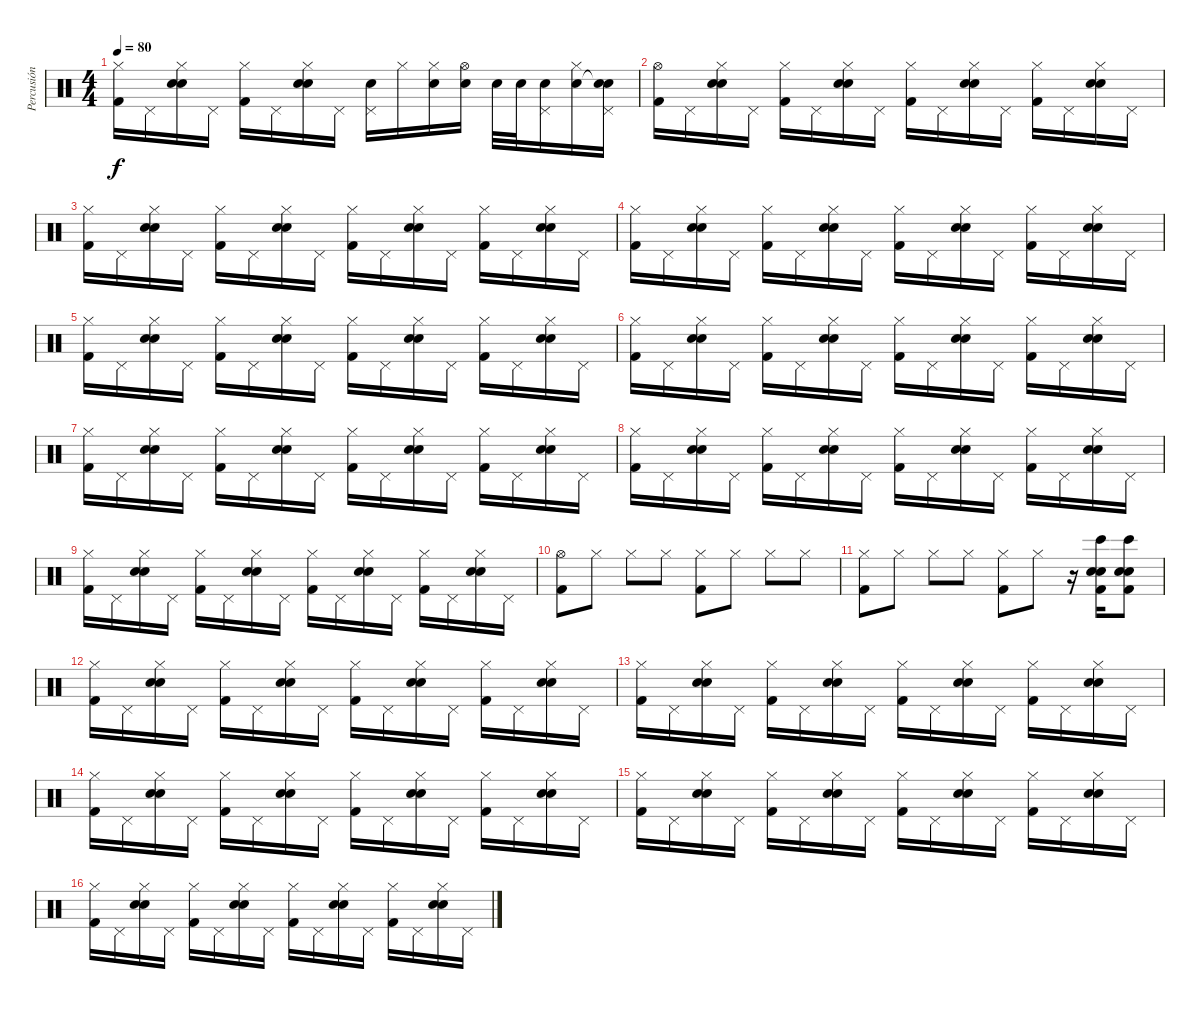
\track ("Percusión" "Percusión") {instrument percussion}
\staff {score}
\articulation defaults
\ts (4 4)
\tempo 80
\clef neutral
\ks c
("Hi-Hat (closed)" "Kick (hit) 2").16{dy f} "Pedal Hi-Hat (hit)".16 ("Hi-Hat (closed)" "Hand Clap (hit)" "Electric Snare (hit)").16 "Pedal Hi-Hat (hit)".16 ("Hi-Hat (closed)" "Kick (hit) 2").16 "Pedal Hi-Hat (hit)".16 ("Hi-Hat (closed)" "Hand Clap (hit)" "Electric Snare (hit)").16 "Pedal Hi-Hat (hit)".16 ("Pedal Hi-Hat (hit)" "Electric Snare (hit)").16 "Hi-Hat (closed)".16 ("Hi-Hat (closed)" "Electric Snare (hit)").16 ("Hi-Hat (open)" "Electric Snare (hit)").16 "Electric Snare (hit)".32 "Electric Snare (hit)".32 ("Pedal Hi-Hat (hit)" "Electric Snare (hit)").16 ("Hi-Hat (closed)" "Electric Snare (hit)").16 ("Pedal Hi-Hat (hit)" "Snare (hit)"{t} "Electric Snare (hit)").16 |
("Hi-Hat (open)" "Kick (hit) 2").16 "Pedal Hi-Hat (hit)".16 ("Hi-Hat (closed)" "Hand Clap (hit)" "Electric Snare (hit)").16 "Pedal Hi-Hat (hit)".16 ("Hi-Hat (closed)" "Kick (hit) 2").16 "Pedal Hi-Hat (hit)".16 ("Hi-Hat (closed)" "Hand Clap (hit)" "Electric Snare (hit)").16 "Pedal Hi-Hat (hit)".16 ("Hi-Hat (closed)" "Kick (hit) 2").16 "Pedal Hi-Hat (hit)".16 ("Hi-Hat (closed)" "Hand Clap (hit)" "Electric Snare (hit)").16 "Pedal Hi-Hat (hit)".16 ("Hi-Hat (closed)" "Kick (hit) 2").16 "Pedal Hi-Hat (hit)".16 ("Hi-Hat (closed)" "Hand Clap (hit)" "Electric Snare (hit)").16 "Pedal Hi-Hat (hit)".16 |
("Hi-Hat (closed)" "Kick (hit) 2").16 "Pedal Hi-Hat (hit)".16 ("Hi-Hat (closed)" "Hand Clap (hit)" "Electric Snare (hit)").16 "Pedal Hi-Hat (hit)".16 ("Hi-Hat (closed)" "Kick (hit) 2").16 "Pedal Hi-Hat (hit)".16 ("Hi-Hat (closed)" "Hand Clap (hit)" "Electric Snare (hit)").16 "Pedal Hi-Hat (hit)".16 ("Hi-Hat (closed)" "Kick (hit) 2").16 "Pedal Hi-Hat (hit)".16 ("Hi-Hat (closed)" "Hand Clap (hit)" "Electric Snare (hit)").16 "Pedal Hi-Hat (hit)".16 ("Hi-Hat (closed)" "Kick (hit) 2").16 "Pedal Hi-Hat (hit)".16 ("Hi-Hat (closed)" "Hand Clap (hit)" "Electric Snare (hit)").16 "Pedal Hi-Hat (hit)".16 |
("Hi-Hat (closed)" "Kick (hit) 2").16 "Pedal Hi-Hat (hit)".16 ("Hi-Hat (closed)" "Hand Clap (hit)" "Electric Snare (hit)").16 "Pedal Hi-Hat (hit)".16 ("Hi-Hat (closed)" "Kick (hit) 2").16 "Pedal Hi-Hat (hit)".16 ("Hi-Hat (closed)" "Hand Clap (hit)" "Electric Snare (hit)").16 "Pedal Hi-Hat (hit)".16 ("Hi-Hat (closed)" "Kick (hit) 2").16 "Pedal Hi-Hat (hit)".16 ("Hi-Hat (closed)" "Hand Clap (hit)" "Electric Snare (hit)").16 "Pedal Hi-Hat (hit)".16 ("Hi-Hat (closed)" "Kick (hit) 2").16 "Pedal Hi-Hat (hit)".16 ("Hi-Hat (closed)" "Hand Clap (hit)" "Electric Snare (hit)").16 "Pedal Hi-Hat (hit)".16 |
("Hi-Hat (closed)" "Kick (hit) 2").16 "Pedal Hi-Hat (hit)".16 ("Hi-Hat (closed)" "Hand Clap (hit)" "Electric Snare (hit)").16 "Pedal Hi-Hat (hit)".16 ("Hi-Hat (closed)" "Kick (hit) 2").16 "Pedal Hi-Hat (hit)".16 ("Hi-Hat (closed)" "Hand Clap (hit)" "Electric Snare (hit)").16 "Pedal Hi-Hat (hit)".16 ("Hi-Hat (closed)" "Kick (hit) 2").16 "Pedal Hi-Hat (hit)".16 ("Hi-Hat (closed)" "Hand Clap (hit)" "Electric Snare (hit)").16 "Pedal Hi-Hat (hit)".16 ("Hi-Hat (closed)" "Kick (hit) 2").16 "Pedal Hi-Hat (hit)".16 ("Hi-Hat (closed)" "Hand Clap (hit)" "Electric Snare (hit)").16 "Pedal Hi-Hat (hit)".16 |
("Hi-Hat (closed)" "Kick (hit) 2").16 "Pedal Hi-Hat (hit)".16 ("Hi-Hat (closed)" "Hand Clap (hit)" "Electric Snare (hit)").16 "Pedal Hi-Hat (hit)".16 ("Hi-Hat (closed)" "Kick (hit) 2").16 "Pedal Hi-Hat (hit)".16 ("Hi-Hat (closed)" "Hand Clap (hit)" "Electric Snare (hit)").16 "Pedal Hi-Hat (hit)".16 ("Hi-Hat (closed)" "Kick (hit) 2").16 "Pedal Hi-Hat (hit)".16 ("Hi-Hat (closed)" "Hand Clap (hit)" "Electric Snare (hit)").16 "Pedal Hi-Hat (hit)".16 ("Hi-Hat (closed)" "Kick (hit) 2").16 "Pedal Hi-Hat (hit)".16 ("Hi-Hat (closed)" "Hand Clap (hit)" "Electric Snare (hit)").16 "Pedal Hi-Hat (hit)".16 |
("Hi-Hat (closed)" "Kick (hit) 2").16 "Pedal Hi-Hat (hit)".16 ("Hi-Hat (closed)" "Hand Clap (hit)" "Electric Snare (hit)").16 "Pedal Hi-Hat (hit)".16 ("Hi-Hat (closed)" "Kick (hit) 2").16 "Pedal Hi-Hat (hit)".16 ("Hi-Hat (closed)" "Hand Clap (hit)" "Electric Snare (hit)").16 "Pedal Hi-Hat (hit)".16 ("Hi-Hat (closed)" "Kick (hit) 2").16 "Pedal Hi-Hat (hit)".16 ("Hi-Hat (closed)" "Hand Clap (hit)" "Electric Snare (hit)").16 "Pedal Hi-Hat (hit)".16 ("Hi-Hat (closed)" "Kick (hit) 2").16 "Pedal Hi-Hat (hit)".16 ("Hi-Hat (closed)" "Hand Clap (hit)" "Electric Snare (hit)").16 "Pedal Hi-Hat (hit)".16 |
("Hi-Hat (closed)" "Kick (hit) 2").16 "Pedal Hi-Hat (hit)".16 ("Hi-Hat (closed)" "Hand Clap (hit)" "Electric Snare (hit)").16 "Pedal Hi-Hat (hit)".16 ("Hi-Hat (closed)" "Kick (hit) 2").16 "Pedal Hi-Hat (hit)".16 ("Hi-Hat (closed)" "Hand Clap (hit)" "Electric Snare (hit)").16 "Pedal Hi-Hat (hit)".16 ("Hi-Hat (closed)" "Kick (hit) 2").16 "Pedal Hi-Hat (hit)".16 ("Hi-Hat (closed)" "Hand Clap (hit)" "Electric Snare (hit)").16 "Pedal Hi-Hat (hit)".16 ("Hi-Hat (closed)" "Kick (hit) 2").16 "Pedal Hi-Hat (hit)".16 ("Hi-Hat (closed)" "Hand Clap (hit)" "Electric Snare (hit)").16 "Pedal Hi-Hat (hit)".16 |
("Hi-Hat (closed)" "Kick (hit) 2").16 "Pedal Hi-Hat (hit)".16 ("Hi-Hat (closed)" "Hand Clap (hit)" "Electric Snare (hit)").16 "Pedal Hi-Hat (hit)".16 ("Hi-Hat (closed)" "Kick (hit) 2").16 "Pedal Hi-Hat (hit)".16 ("Hi-Hat (closed)" "Hand Clap (hit)" "Electric Snare (hit)").16 "Pedal Hi-Hat (hit)".16 ("Hi-Hat (closed)" "Kick (hit) 2").16 "Pedal Hi-Hat (hit)".16 ("Hi-Hat (closed)" "Hand Clap (hit)" "Electric Snare (hit)").16 "Pedal Hi-Hat (hit)".16 ("Hi-Hat (closed)" "Kick (hit) 2").16 "Pedal Hi-Hat (hit)".16 ("Hi-Hat (closed)" "Hand Clap (hit)" "Electric Snare (hit)").16 "Pedal Hi-Hat (hit)".16 |
("Hi-Hat (open)" "Kick (hit) 2").8 "Hi-Hat (closed)".8 "Hi-Hat (closed)".8 "Hi-Hat (closed)".8 ("Hi-Hat (closed)" "Kick (hit) 2").8 "Hi-Hat (closed)".8 "Hi-Hat (closed)".8 "Hi-Hat (closed)".8 |
("Hi-Hat (closed)" "Kick (hit) 2").8 "Hi-Hat (closed)".8 "Hi-Hat (closed)".8 "Hi-Hat (closed)".8 ("Hi-Hat (closed)" "Kick (hit) 2").8 "Hi-Hat (closed)".8 r.16 ("Hand Clap (hit)" "Electric Snare (hit)" "Kick (hit) 2" "Bongo High (hit)").16 ("Hand Clap (hit)" "Electric Snare (hit)" "Kick (hit) 2" "Bongo High (hit)").8 |
("Hi-Hat (closed)" "Kick (hit) 2").16 "Pedal Hi-Hat (hit)".16 ("Hi-Hat (closed)" "Hand Clap (hit)" "Electric Snare (hit)").16 "Pedal Hi-Hat (hit)".16 ("Hi-Hat (closed)" "Kick (hit) 2").16 "Pedal Hi-Hat (hit)".16 ("Hi-Hat (closed)" "Hand Clap (hit)" "Electric Snare (hit)").16 "Pedal Hi-Hat (hit)".16 ("Hi-Hat (closed)" "Kick (hit) 2").16 "Pedal Hi-Hat (hit)".16 ("Hi-Hat (closed)" "Hand Clap (hit)" "Electric Snare (hit)").16 "Pedal Hi-Hat (hit)".16 ("Hi-Hat (closed)" "Kick (hit) 2").16 "Pedal Hi-Hat (hit)".16 ("Hi-Hat (closed)" "Hand Clap (hit)" "Electric Snare (hit)").16 "Pedal Hi-Hat (hit)".16 |
("Hi-Hat (closed)" "Kick (hit) 2").16 "Pedal Hi-Hat (hit)".16 ("Hi-Hat (closed)" "Hand Clap (hit)" "Electric Snare (hit)").16 "Pedal Hi-Hat (hit)".16 ("Hi-Hat (closed)" "Kick (hit) 2").16 "Pedal Hi-Hat (hit)".16 ("Hi-Hat (closed)" "Hand Clap (hit)" "Electric Snare (hit)").16 "Pedal Hi-Hat (hit)".16 ("Hi-Hat (closed)" "Kick (hit) 2").16 "Pedal Hi-Hat (hit)".16 ("Hi-Hat (closed)" "Hand Clap (hit)" "Electric Snare (hit)").16 "Pedal Hi-Hat (hit)".16 ("Hi-Hat (closed)" "Kick (hit) 2").16 "Pedal Hi-Hat (hit)".16 ("Hi-Hat (closed)" "Hand Clap (hit)" "Electric Snare (hit)").16 "Pedal Hi-Hat (hit)".16 |
("Hi-Hat (closed)" "Kick (hit) 2").16 "Pedal Hi-Hat (hit)".16 ("Hi-Hat (closed)" "Hand Clap (hit)" "Electric Snare (hit)").16 "Pedal Hi-Hat (hit)".16 ("Hi-Hat (closed)" "Kick (hit) 2").16 "Pedal Hi-Hat (hit)".16 ("Hi-Hat (closed)" "Hand Clap (hit)" "Electric Snare (hit)").16 "Pedal Hi-Hat (hit)".16 ("Hi-Hat (closed)" "Kick (hit) 2").16 "Pedal Hi-Hat (hit)".16 ("Hi-Hat (closed)" "Hand Clap (hit)" "Electric Snare (hit)").16 "Pedal Hi-Hat (hit)".16 ("Hi-Hat (closed)" "Kick (hit) 2").16 "Pedal Hi-Hat (hit)".16 ("Hi-Hat (closed)" "Hand Clap (hit)" "Electric Snare (hit)").16 "Pedal Hi-Hat (hit)".16 |
("Hi-Hat (closed)" "Kick (hit) 2").16 "Pedal Hi-Hat (hit)".16 ("Hi-Hat (closed)" "Hand Clap (hit)" "Electric Snare (hit)").16 "Pedal Hi-Hat (hit)".16 ("Hi-Hat (closed)" "Kick (hit) 2").16 "Pedal Hi-Hat (hit)".16 ("Hi-Hat (closed)" "Hand Clap (hit)" "Electric Snare (hit)").16 "Pedal Hi-Hat (hit)".16 ("Hi-Hat (closed)" "Kick (hit) 2").16 "Pedal Hi-Hat (hit)".16 ("Hi-Hat (closed)" "Hand Clap (hit)" "Electric Snare (hit)").16 "Pedal Hi-Hat (hit)".16 ("Hi-Hat (closed)" "Kick (hit) 2").16 "Pedal Hi-Hat (hit)".16 ("Hi-Hat (closed)" "Hand Clap (hit)" "Electric Snare (hit)").16 "Pedal Hi-Hat (hit)".16 |
("Hi-Hat (closed)" "Kick (hit) 2").16 "Pedal Hi-Hat (hit)".16 ("Hi-Hat (closed)" "Hand Clap (hit)" "Electric Snare (hit)").16 "Pedal Hi-Hat (hit)".16 ("Hi-Hat (closed)" "Kick (hit) 2").16 "Pedal Hi-Hat (hit)".16 ("Hi-Hat (closed)" "Hand Clap (hit)" "Electric Snare (hit)").16 "Pedal Hi-Hat (hit)".16 ("Hi-Hat (closed)" "Kick (hit) 2").16 "Pedal Hi-Hat (hit)".16 ("Hi-Hat (closed)" "Hand Clap (hit)" "Electric Snare (hit)").16 "Pedal Hi-Hat (hit)".16 ("Hi-Hat (closed)" "Kick (hit) 2").16 "Pedal Hi-Hat (hit)".16 ("Hi-Hat (closed)" "Hand Clap (hit)" "Electric Snare (hit)").16 "Pedal Hi-Hat (hit)".16
